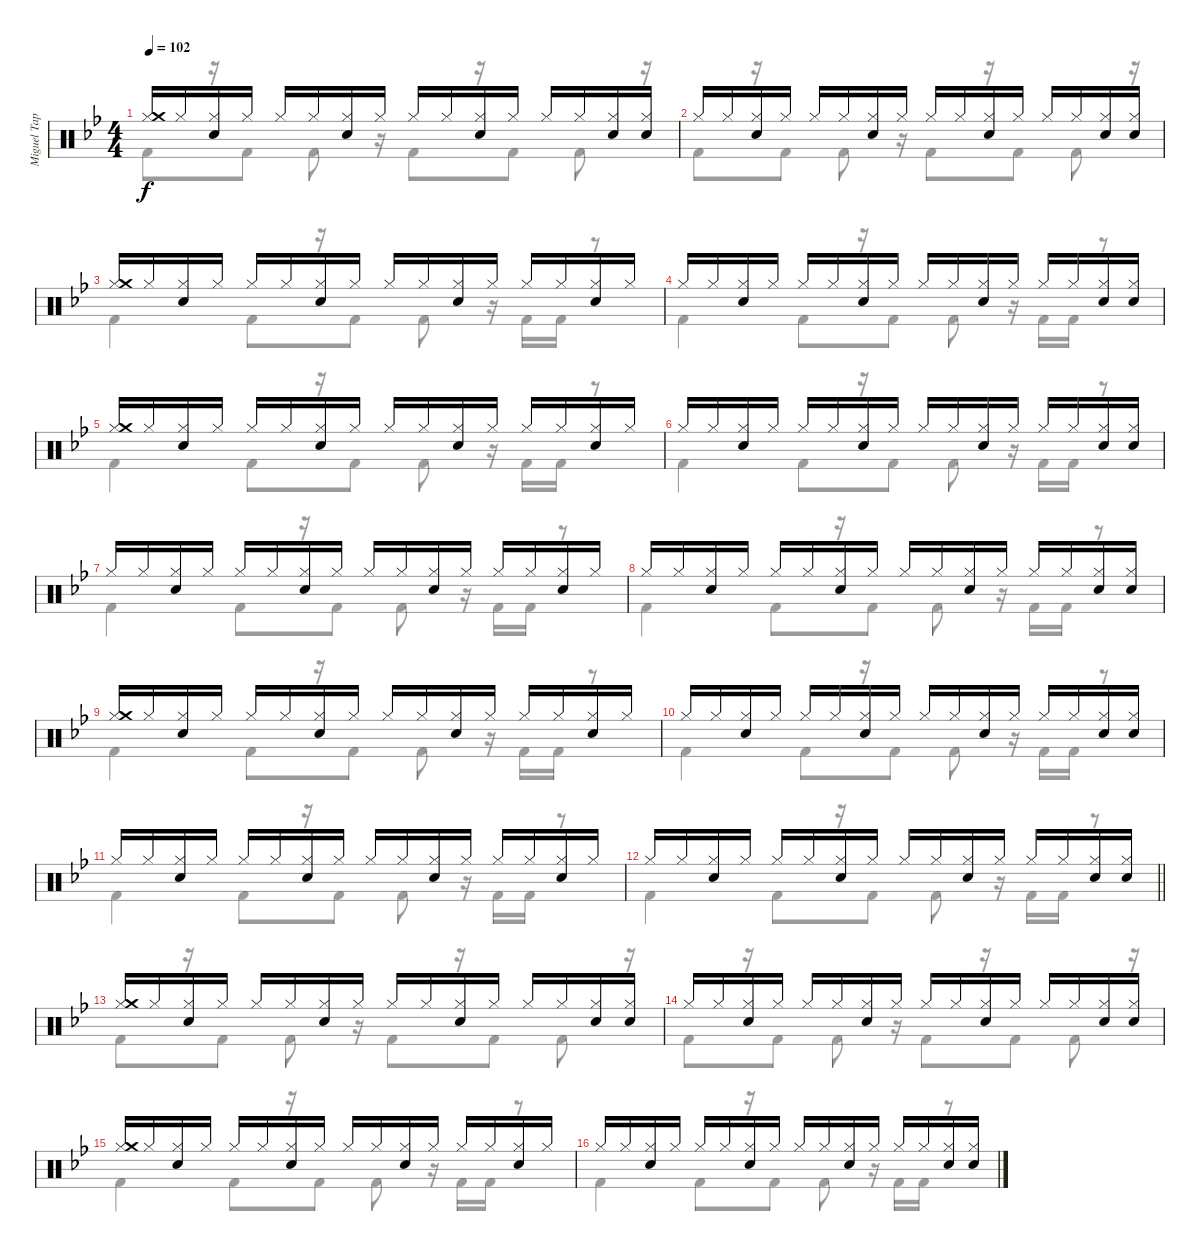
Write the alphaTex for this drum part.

\track ("Miguel Tapia (Batería)" "Miguel Tap") {instrument percussion}
\staff {score}
\articulation defaults
\voice
\ts (4 4)
\tempo 102
\clef neutral
\ks bb
("Hi-Hat (closed)" "Crash medium (hit)").16{dy f} "Hi-Hat (closed)".16 ("Hi-Hat (closed)" "Snare (hit) 2").16 "Hi-Hat (closed)".16 "Hi-Hat (closed)".16 "Hi-Hat (closed)".16 ("Hi-Hat (closed)" "Snare (hit) 2").16 "Hi-Hat (closed)".16 "Hi-Hat (closed)".16 "Hi-Hat (closed)".16 ("Hi-Hat (closed)" "Snare (hit) 2").16 "Hi-Hat (closed)".16 "Hi-Hat (closed)".16 "Hi-Hat (closed)".16 ("Hi-Hat (closed)" "Snare (hit) 2").16 ("Hi-Hat (closed)" "Snare (hit) 2").16 |
"Hi-Hat (closed)".16 "Hi-Hat (closed)".16 ("Hi-Hat (closed)" "Snare (hit) 2").16 "Hi-Hat (closed)".16 "Hi-Hat (closed)".16 "Hi-Hat (closed)".16 ("Hi-Hat (closed)" "Snare (hit) 2").16 "Hi-Hat (closed)".16 "Hi-Hat (closed)".16 "Hi-Hat (closed)".16 ("Hi-Hat (closed)" "Snare (hit) 2").16 "Hi-Hat (closed)".16 "Hi-Hat (closed)".16 "Hi-Hat (closed)".16 ("Hi-Hat (closed)" "Snare (hit) 2").16 ("Hi-Hat (closed)" "Snare (hit) 2").16 |
("Hi-Hat (closed)" "Crash medium (hit)").16 "Hi-Hat (closed)".16 ("Hi-Hat (closed)" "Snare (hit) 2").16 "Hi-Hat (closed)".16 "Hi-Hat (closed)".16 "Hi-Hat (closed)".16 ("Hi-Hat (closed)" "Snare (hit) 2").16 "Hi-Hat (closed)".16 "Hi-Hat (closed)".16 "Hi-Hat (closed)".16 ("Hi-Hat (closed)" "Snare (hit) 2").16 "Hi-Hat (closed)".16 "Hi-Hat (closed)".16 "Hi-Hat (closed)".16 ("Hi-Hat (closed)" "Snare (hit) 2").16 "Hi-Hat (closed)".16 |
"Hi-Hat (closed)".16 "Hi-Hat (closed)".16 ("Hi-Hat (closed)" "Snare (hit) 2").16 "Hi-Hat (closed)".16 "Hi-Hat (closed)".16 "Hi-Hat (closed)".16 ("Hi-Hat (closed)" "Snare (hit) 2").16 "Hi-Hat (closed)".16 "Hi-Hat (closed)".16 "Hi-Hat (closed)".16 ("Hi-Hat (closed)" "Snare (hit) 2").16 "Hi-Hat (closed)".16 "Hi-Hat (closed)".16 "Hi-Hat (closed)".16 ("Hi-Hat (closed)" "Snare (hit) 2").16 ("Hi-Hat (closed)" "Snare (hit) 2").16 |
("Hi-Hat (closed)" "Crash medium (hit)").16 "Hi-Hat (closed)".16 ("Hi-Hat (closed)" "Snare (hit) 2").16 "Hi-Hat (closed)".16 "Hi-Hat (closed)".16 "Hi-Hat (closed)".16 ("Hi-Hat (closed)" "Snare (hit) 2").16 "Hi-Hat (closed)".16 "Hi-Hat (closed)".16 "Hi-Hat (closed)".16 ("Hi-Hat (closed)" "Snare (hit) 2").16 "Hi-Hat (closed)".16 "Hi-Hat (closed)".16 "Hi-Hat (closed)".16 ("Hi-Hat (closed)" "Snare (hit) 2").16 "Hi-Hat (closed)".16 |
"Hi-Hat (closed)".16 "Hi-Hat (closed)".16 ("Hi-Hat (closed)" "Snare (hit) 2").16 "Hi-Hat (closed)".16 "Hi-Hat (closed)".16 "Hi-Hat (closed)".16 ("Hi-Hat (closed)" "Snare (hit) 2").16 "Hi-Hat (closed)".16 "Hi-Hat (closed)".16 "Hi-Hat (closed)".16 ("Hi-Hat (closed)" "Snare (hit) 2").16 "Hi-Hat (closed)".16 "Hi-Hat (closed)".16 "Hi-Hat (closed)".16 ("Hi-Hat (closed)" "Snare (hit) 2").16 ("Hi-Hat (closed)" "Snare (hit) 2").16 |
"Hi-Hat (closed)".16 "Hi-Hat (closed)".16 ("Hi-Hat (closed)" "Snare (hit) 2").16 "Hi-Hat (closed)".16 "Hi-Hat (closed)".16 "Hi-Hat (closed)".16 ("Hi-Hat (closed)" "Snare (hit) 2").16 "Hi-Hat (closed)".16 "Hi-Hat (closed)".16 "Hi-Hat (closed)".16 ("Hi-Hat (closed)" "Snare (hit) 2").16 "Hi-Hat (closed)".16 "Hi-Hat (closed)".16 "Hi-Hat (closed)".16 ("Hi-Hat (closed)" "Snare (hit) 2").16 "Hi-Hat (closed)".16 |
"Hi-Hat (closed)".16 "Hi-Hat (closed)".16 ("Hi-Hat (closed)" "Snare (hit) 2").16 "Hi-Hat (closed)".16 "Hi-Hat (closed)".16 "Hi-Hat (closed)".16 ("Hi-Hat (closed)" "Snare (hit) 2").16 "Hi-Hat (closed)".16 "Hi-Hat (closed)".16 "Hi-Hat (closed)".16 ("Hi-Hat (closed)" "Snare (hit) 2").16 "Hi-Hat (closed)".16 "Hi-Hat (closed)".16 "Hi-Hat (closed)".16 ("Hi-Hat (closed)" "Snare (hit) 2").16 ("Hi-Hat (closed)" "Snare (hit) 2").16 |
("Hi-Hat (closed)" "Crash medium (hit)").16 "Hi-Hat (closed)".16 ("Hi-Hat (closed)" "Snare (hit) 2").16 "Hi-Hat (closed)".16 "Hi-Hat (closed)".16 "Hi-Hat (closed)".16 ("Hi-Hat (closed)" "Snare (hit) 2").16 "Hi-Hat (closed)".16 "Hi-Hat (closed)".16 "Hi-Hat (closed)".16 ("Hi-Hat (closed)" "Snare (hit) 2").16 "Hi-Hat (closed)".16 "Hi-Hat (closed)".16 "Hi-Hat (closed)".16 ("Hi-Hat (closed)" "Snare (hit) 2").16 "Hi-Hat (closed)".16 |
"Hi-Hat (closed)".16 "Hi-Hat (closed)".16 ("Hi-Hat (closed)" "Snare (hit) 2").16 "Hi-Hat (closed)".16 "Hi-Hat (closed)".16 "Hi-Hat (closed)".16 ("Hi-Hat (closed)" "Snare (hit) 2").16 "Hi-Hat (closed)".16 "Hi-Hat (closed)".16 "Hi-Hat (closed)".16 ("Hi-Hat (closed)" "Snare (hit) 2").16 "Hi-Hat (closed)".16 "Hi-Hat (closed)".16 "Hi-Hat (closed)".16 ("Hi-Hat (closed)" "Snare (hit) 2").16 ("Hi-Hat (closed)" "Snare (hit) 2").16 |
"Hi-Hat (closed)".16 "Hi-Hat (closed)".16 ("Hi-Hat (closed)" "Snare (hit) 2").16 "Hi-Hat (closed)".16 "Hi-Hat (closed)".16 "Hi-Hat (closed)".16 ("Hi-Hat (closed)" "Snare (hit) 2").16 "Hi-Hat (closed)".16 "Hi-Hat (closed)".16 "Hi-Hat (closed)".16 ("Hi-Hat (closed)" "Snare (hit) 2").16 "Hi-Hat (closed)".16 "Hi-Hat (closed)".16 "Hi-Hat (closed)".16 ("Hi-Hat (closed)" "Snare (hit) 2").16 "Hi-Hat (closed)".16 |
\barLineRight lightlight "Hi-Hat (closed)".16 "Hi-Hat (closed)".16
("Hi-Hat (closed)" "Snare (hit) 2").16 "Hi-Hat (closed)".16 "Hi-Hat (closed)".16 "Hi-Hat (closed)".16 ("Hi-Hat (closed)" "Snare (hit) 2").16 "Hi-Hat (closed)".16 "Hi-Hat (closed)".16 "Hi-Hat (closed)".16 ("Hi-Hat (closed)" "Snare (hit) 2").16 "Hi-Hat (closed)".16 "Hi-Hat (closed)".16 "Hi-Hat (closed)".16 ("Hi-Hat (closed)" "Snare (hit) 2").16 ("Hi-Hat (closed)" "Snare (hit) 2").16 |
("Hi-Hat (closed)" "Crash medium (hit)").16 "Hi-Hat (closed)".16 ("Hi-Hat (closed)" "Snare (hit) 2").16 "Hi-Hat (closed)".16 "Hi-Hat (closed)".16 "Hi-Hat (closed)".16 ("Hi-Hat (closed)" "Snare (hit) 2").16 "Hi-Hat (closed)".16 "Hi-Hat (closed)".16 "Hi-Hat (closed)".16 ("Hi-Hat (closed)" "Snare (hit) 2").16 "Hi-Hat (closed)".16 "Hi-Hat (closed)".16 "Hi-Hat (closed)".16 ("Hi-Hat (closed)" "Snare (hit) 2").16 ("Hi-Hat (closed)" "Snare (hit) 2").16 |
"Hi-Hat (closed)".16 "Hi-Hat (closed)".16 ("Hi-Hat (closed)" "Snare (hit) 2").16 "Hi-Hat (closed)".16 "Hi-Hat (closed)".16 "Hi-Hat (closed)".16 ("Hi-Hat (closed)" "Snare (hit) 2").16 "Hi-Hat (closed)".16 "Hi-Hat (closed)".16 "Hi-Hat (closed)".16 ("Hi-Hat (closed)" "Snare (hit) 2").16 "Hi-Hat (closed)".16 "Hi-Hat (closed)".16 "Hi-Hat (closed)".16 ("Hi-Hat (closed)" "Snare (hit) 2").16 ("Hi-Hat (closed)" "Snare (hit) 2").16 |
("Hi-Hat (closed)" "Crash medium (hit)").16 "Hi-Hat (closed)".16 ("Hi-Hat (closed)" "Snare (hit) 2").16 "Hi-Hat (closed)".16 "Hi-Hat (closed)".16 "Hi-Hat (closed)".16 ("Hi-Hat (closed)" "Snare (hit) 2").16 "Hi-Hat (closed)".16 "Hi-Hat (closed)".16 "Hi-Hat (closed)".16 ("Hi-Hat (closed)" "Snare (hit) 2").16 "Hi-Hat (closed)".16 "Hi-Hat (closed)".16 "Hi-Hat (closed)".16 ("Hi-Hat (closed)" "Snare (hit) 2").16 "Hi-Hat (closed)".16 |
"Hi-Hat (closed)".16 "Hi-Hat (closed)".16 ("Hi-Hat (closed)" "Snare (hit) 2").16 "Hi-Hat (closed)".16 "Hi-Hat (closed)".16 "Hi-Hat (closed)".16 ("Hi-Hat (closed)" "Snare (hit) 2").16 "Hi-Hat (closed)".16 "Hi-Hat (closed)".16 "Hi-Hat (closed)".16 ("Hi-Hat (closed)" "Snare (hit) 2").16 "Hi-Hat (closed)".16 "Hi-Hat (closed)".16 "Hi-Hat (closed)".16 ("Hi-Hat (closed)" "Snare (hit) 2").16 ("Hi-Hat (closed)" "Snare (hit) 2").16
\voice
\clef neutral
\ottava regular
\simile none
\ks bb "Kick (hit) 2".8{dy f}
r.16 "Kick (hit) 2".8 "Kick (hit) 2".8 r.16 "Kick (hit) 2".8 r.16 "Kick (hit) 2".8 "Kick (hit) 2".8 r.16 |
"Kick (hit) 2".8 r.16 "Kick (hit) 2".8 "Kick (hit) 2".8 r.16 "Kick (hit) 2".8 r.16 "Kick (hit) 2".8 "Kick (hit) 2".8 r.16 |
"Kick (hit) 2".4 "Kick (hit) 2".8 r.16 "Kick (hit) 2".8 "Kick (hit) 2".8 r.16 "Kick (hit) 2".16 "Kick (hit) 2".16 r.8 |
"Kick (hit) 2".4 "Kick (hit) 2".8 r.16 "Kick (hit) 2".8 "Kick (hit) 2".8 r.16 "Kick (hit) 2".16 "Kick (hit) 2".16 r.8 |
"Kick (hit) 2".4 "Kick (hit) 2".8 r.16 "Kick (hit) 2".8 "Kick (hit) 2".8 r.16 "Kick (hit) 2".16 "Kick (hit) 2".16 r.8 |
"Kick (hit) 2".4 "Kick (hit) 2".8 r.16 "Kick (hit) 2".8 "Kick (hit) 2".8 r.16 "Kick (hit) 2".16 "Kick (hit) 2".16 r.8 |
"Kick (hit) 2".4 "Kick (hit) 2".8 r.16 "Kick (hit) 2".8 "Kick (hit) 2".8 r.16 "Kick (hit) 2".16 "Kick (hit) 2".16 r.8 |
"Kick (hit) 2".4 "Kick (hit) 2".8 r.16 "Kick (hit) 2".8 "Kick (hit) 2".8 r.16 "Kick (hit) 2".16 "Kick (hit) 2".16 r.8 |
"Kick (hit) 2".4 "Kick (hit) 2".8 r.16 "Kick (hit) 2".8 "Kick (hit) 2".8 r.16 "Kick (hit) 2".16 "Kick (hit) 2".16 r.8 |
"Kick (hit) 2".4 "Kick (hit) 2".8 r.16 "Kick (hit) 2".8 "Kick (hit) 2".8 r.16 "Kick (hit) 2".16 "Kick (hit) 2".16 r.8 |
"Kick (hit) 2".4 "Kick (hit) 2".8 r.16 "Kick (hit) 2".8 "Kick (hit) 2".8 r.16 "Kick (hit) 2".16 "Kick (hit) 2".16 r.8 |
\barLineRight lightlight "Kick (hit) 2".4 "Kick (hit) 2".8
r.16 "Kick (hit) 2".8 "Kick (hit) 2".8 r.16 "Kick (hit) 2".16 "Kick (hit) 2".16 r.8 |
"Kick (hit) 2".8 r.16 "Kick (hit) 2".8 "Kick (hit) 2".8 r.16 "Kick (hit) 2".8 r.16 "Kick (hit) 2".8 "Kick (hit) 2".8 r.16 |
"Kick (hit) 2".8 r.16 "Kick (hit) 2".8 "Kick (hit) 2".8 r.16 "Kick (hit) 2".8 r.16 "Kick (hit) 2".8 "Kick (hit) 2".8 r.16 |
"Kick (hit) 2".4 "Kick (hit) 2".8 r.16 "Kick (hit) 2".8 "Kick (hit) 2".8 r.16 "Kick (hit) 2".16 "Kick (hit) 2".16 r.8 |
"Kick (hit) 2".4 "Kick (hit) 2".8 r.16 "Kick (hit) 2".8 "Kick (hit) 2".8 r.16 "Kick (hit) 2".16 "Kick (hit) 2".16 r.8
